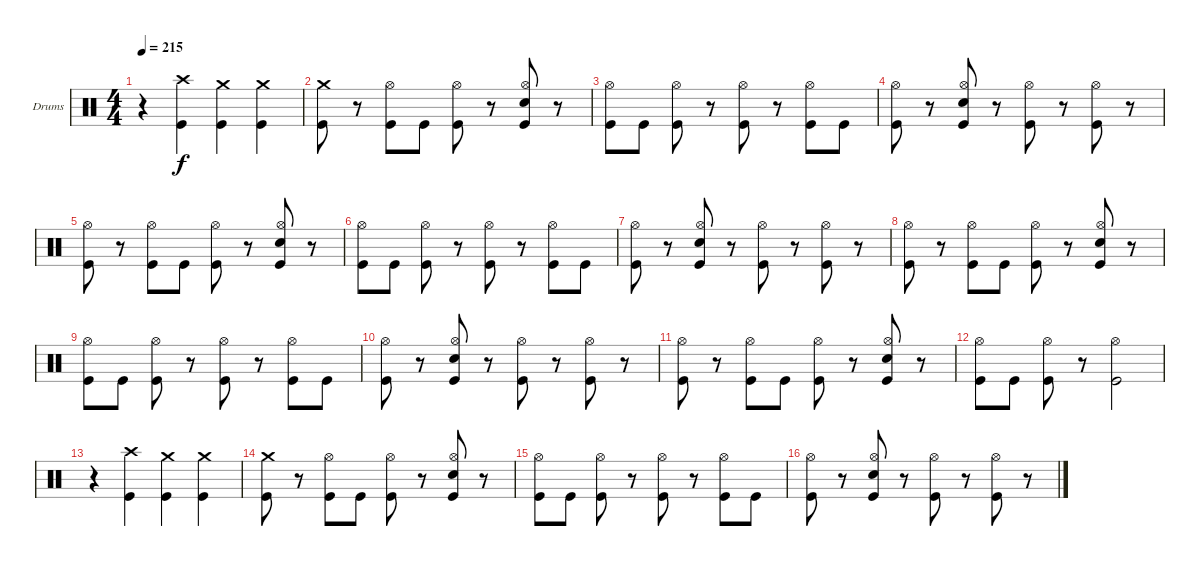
\bracketExtendMode groupsimilarinstruments
\firstSystemTrackNameOrientation horizontal
\otherSystemsTrackNameOrientation horizontal
\track ("Drumkit (Christoph)" "Drums") {instrument percussion}
\staff {score}
\articulation defaults
\ts (4 4)
\tempo 215
\clef neutral
\ks c
r.4{dy f} ("Crash high (hit)" "Kick (hit)").4 ("Crash medium (hit)" "Kick (hit)").4 ("Crash medium (hit)" "Kick (hit)").4 |
("Crash medium (hit)" "Kick (hit)").8 r.8 ("Hi-Hat (open)" "Kick (hit)").8 "Kick (hit)".8 ("Hi-Hat (open)" "Kick (hit)").8 r.8 ("Hi-Hat (open)" "Snare (hit) 2" "Kick (hit)").8 r.8 |
("Hi-Hat (open)" "Kick (hit)").8 "Kick (hit)".8 ("Hi-Hat (open)" "Kick (hit)").8 r.8 ("Hi-Hat (open)" "Kick (hit)").8 r.8 ("Hi-Hat (open)" "Kick (hit)").8 "Kick (hit)".8 |
("Hi-Hat (open)" "Kick (hit)").8 r.8 ("Hi-Hat (open)" "Snare (hit) 2" "Kick (hit)").8 r.8 ("Hi-Hat (open)" "Kick (hit)").8 r.8 ("Hi-Hat (open)" "Kick (hit)").8 r.8 |
("Hi-Hat (open)" "Kick (hit)").8 r.8 ("Hi-Hat (open)" "Kick (hit)").8 "Kick (hit)".8 ("Hi-Hat (open)" "Kick (hit)").8 r.8 ("Hi-Hat (open)" "Snare (hit) 2" "Kick (hit)").8 r.8 |
("Hi-Hat (open)" "Kick (hit)").8 "Kick (hit)".8 ("Hi-Hat (open)" "Kick (hit)").8 r.8 ("Hi-Hat (open)" "Kick (hit)").8 r.8 ("Hi-Hat (open)" "Kick (hit)").8 "Kick (hit)".8 |
("Hi-Hat (open)" "Kick (hit)").8 r.8 ("Hi-Hat (open)" "Snare (hit) 2" "Kick (hit)").8 r.8 ("Hi-Hat (open)" "Kick (hit)").8 r.8 ("Hi-Hat (open)" "Kick (hit)").8 r.8 |
("Hi-Hat (open)" "Kick (hit)").8 r.8 ("Hi-Hat (open)" "Kick (hit)").8 "Kick (hit)".8 ("Hi-Hat (open)" "Kick (hit)").8 r.8 ("Hi-Hat (open)" "Snare (hit) 2" "Kick (hit)").8 r.8 |
("Hi-Hat (open)" "Kick (hit)").8 "Kick (hit)".8 ("Hi-Hat (open)" "Kick (hit)").8 r.8 ("Hi-Hat (open)" "Kick (hit)").8 r.8 ("Hi-Hat (open)" "Kick (hit)").8 "Kick (hit)".8 |
("Hi-Hat (open)" "Kick (hit)").8 r.8 ("Hi-Hat (open)" "Snare (hit) 2" "Kick (hit)").8 r.8 ("Hi-Hat (open)" "Kick (hit)").8 r.8 ("Hi-Hat (open)" "Kick (hit)").8 r.8 |
("Hi-Hat (open)" "Kick (hit)").8 r.8 ("Hi-Hat (open)" "Kick (hit)").8 "Kick (hit)".8 ("Hi-Hat (open)" "Kick (hit)").8 r.8 ("Hi-Hat (open)" "Snare (hit) 2" "Kick (hit)").8 r.8 |
("Hi-Hat (open)" "Kick (hit)").8 "Kick (hit)".8 ("Hi-Hat (open)" "Kick (hit)").8 r.8 ("Hi-Hat (open)" "Kick (hit)").2 |
r.4 ("Crash high (hit)" "Kick (hit)").4 ("Crash medium (hit)" "Kick (hit)").4 ("Crash medium (hit)" "Kick (hit)").4 |
("Crash medium (hit)" "Kick (hit)").8 r.8 ("Hi-Hat (open)" "Kick (hit)").8 "Kick (hit)".8 ("Hi-Hat (open)" "Kick (hit)").8 r.8 ("Hi-Hat (open)" "Snare (hit) 2" "Kick (hit)").8 r.8 |
("Hi-Hat (open)" "Kick (hit)").8 "Kick (hit)".8 ("Hi-Hat (open)" "Kick (hit)").8 r.8 ("Hi-Hat (open)" "Kick (hit)").8 r.8 ("Hi-Hat (open)" "Kick (hit)").8 "Kick (hit)".8 |
("Hi-Hat (open)" "Kick (hit)").8 r.8 ("Hi-Hat (open)" "Snare (hit) 2" "Kick (hit)").8 r.8 ("Hi-Hat (open)" "Kick (hit)").8 r.8 ("Hi-Hat (open)" "Kick (hit)").8 r.8
